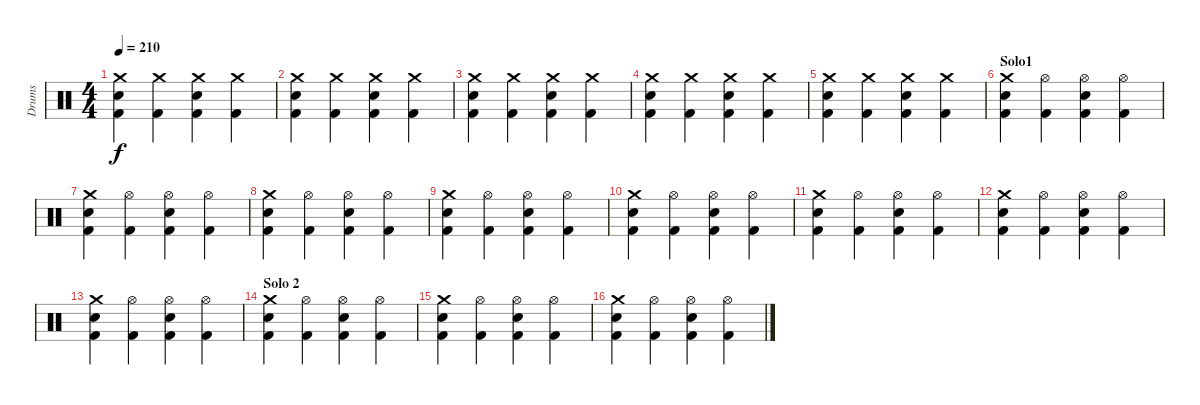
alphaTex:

\track ("Drums" "Drums") {instrument percussion}
\staff {score}
\articulation defaults
\ts (4 4)
\tempo 210
\clef neutral
\ks c
("Kick (hit) 2" "Electric Snare (hit)" "Crash medium (hit)").4{dy f} ("Kick (hit) 2" "Crash medium (hit)").4 ("Kick (hit) 2" "Electric Snare (hit)" "Crash medium (hit)").4 ("Kick (hit) 2" "Crash medium (hit)").4 |
("Kick (hit) 2" "Electric Snare (hit)" "Crash medium (hit)").4 ("Kick (hit) 2" "Crash medium (hit)").4 ("Kick (hit) 2" "Electric Snare (hit)" "Crash medium (hit)").4 ("Kick (hit) 2" "Crash medium (hit)").4 |
("Kick (hit) 2" "Electric Snare (hit)" "Crash medium (hit)").4 ("Kick (hit) 2" "Crash medium (hit)").4 ("Kick (hit) 2" "Electric Snare (hit)" "Crash medium (hit)").4 ("Kick (hit) 2" "Crash medium (hit)").4 |
("Kick (hit) 2" "Electric Snare (hit)" "Crash medium (hit)").4 ("Kick (hit) 2" "Crash medium (hit)").4 ("Kick (hit) 2" "Electric Snare (hit)" "Crash medium (hit)").4 ("Kick (hit) 2" "Crash medium (hit)").4 |
("Kick (hit) 2" "Electric Snare (hit)" "Crash medium (hit)").4 ("Kick (hit) 2" "Crash medium (hit)").4 ("Kick (hit) 2" "Electric Snare (hit)" "Crash medium (hit)").4 ("Kick (hit) 2" "Crash medium (hit)").4 |
\section ("" "Solo1")
("Crash medium (hit)" "Electric Snare (hit)" "Kick (hit) 2").4 ("Hi-Hat (open)" "Kick (hit) 2").4 ("Hi-Hat (open)" "Electric Snare (hit)" "Kick (hit) 2").4 ("Hi-Hat (open)" "Kick (hit) 2").4 |
("Crash medium (hit)" "Electric Snare (hit)" "Kick (hit) 2").4 ("Hi-Hat (open)" "Kick (hit) 2").4 ("Hi-Hat (open)" "Electric Snare (hit)" "Kick (hit) 2").4 ("Hi-Hat (open)" "Kick (hit) 2").4 |
("Crash medium (hit)" "Electric Snare (hit)" "Kick (hit) 2").4 ("Hi-Hat (open)" "Kick (hit) 2").4 ("Hi-Hat (open)" "Electric Snare (hit)" "Kick (hit) 2").4 ("Hi-Hat (open)" "Kick (hit) 2").4 |
("Crash medium (hit)" "Electric Snare (hit)" "Kick (hit) 2").4 ("Hi-Hat (open)" "Kick (hit) 2").4 ("Hi-Hat (open)" "Electric Snare (hit)" "Kick (hit) 2").4 ("Hi-Hat (open)" "Kick (hit) 2").4 |
("Crash medium (hit)" "Electric Snare (hit)" "Kick (hit) 2").4 ("Hi-Hat (open)" "Kick (hit) 2").4 ("Hi-Hat (open)" "Electric Snare (hit)" "Kick (hit) 2").4 ("Hi-Hat (open)" "Kick (hit) 2").4 |
("Crash medium (hit)" "Electric Snare (hit)" "Kick (hit) 2").4 ("Hi-Hat (open)" "Kick (hit) 2").4 ("Hi-Hat (open)" "Electric Snare (hit)" "Kick (hit) 2").4 ("Hi-Hat (open)" "Kick (hit) 2").4 |
("Crash medium (hit)" "Electric Snare (hit)" "Kick (hit) 2").4 ("Hi-Hat (open)" "Kick (hit) 2").4 ("Hi-Hat (open)" "Electric Snare (hit)" "Kick (hit) 2").4 ("Hi-Hat (open)" "Kick (hit) 2").4 |
("Crash medium (hit)" "Electric Snare (hit)" "Kick (hit) 2").4 ("Hi-Hat (open)" "Kick (hit) 2").4 ("Hi-Hat (open)" "Electric Snare (hit)" "Kick (hit) 2").4 ("Hi-Hat (open)" "Kick (hit) 2").4 |
\section ("" "Solo 2")
("Crash medium (hit)" "Electric Snare (hit)" "Kick (hit) 2").4 ("Hi-Hat (open)" "Kick (hit) 2").4 ("Hi-Hat (open)" "Electric Snare (hit)" "Kick (hit) 2").4 ("Hi-Hat (open)" "Kick (hit) 2").4 |
("Crash medium (hit)" "Electric Snare (hit)" "Kick (hit) 2").4 ("Hi-Hat (open)" "Kick (hit) 2").4 ("Hi-Hat (open)" "Electric Snare (hit)" "Kick (hit) 2").4 ("Hi-Hat (open)" "Kick (hit) 2").4 |
("Crash medium (hit)" "Electric Snare (hit)" "Kick (hit) 2").4 ("Hi-Hat (open)" "Kick (hit) 2").4 ("Hi-Hat (open)" "Electric Snare (hit)" "Kick (hit) 2").4 ("Hi-Hat (open)" "Kick (hit) 2").4
